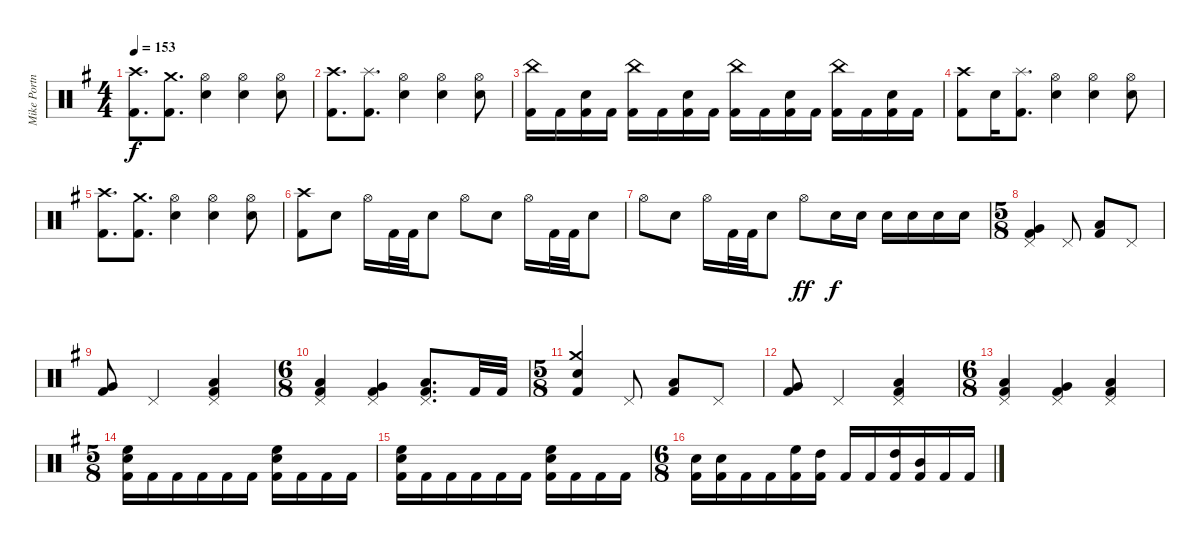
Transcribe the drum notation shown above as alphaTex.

\track ("Mike Portnoy - Drums" "Mike Portn") {instrument percussion}
\staff {score}
\articulation defaults
\ts (4 4)
\tempo 153
\clef neutral
\ks g
("Kick (hit) 2" "Crash high (hit)").8{d dy f} ("Kick (hit) 2" "Crash medium (hit)").8{d} ("Hi-Hat (open)" "Electric Snare (hit)").4 ("Hi-Hat (open)" "Electric Snare (hit)").4 ("Hi-Hat (open)" "Electric Snare (hit)").8 |
("Crash high (hit)" "Kick (hit) 2").8{d} ("Splash (hit)" "Kick (hit) 2").8{d} ("Hi-Hat (open)" "Electric Snare (hit)").4 ("Hi-Hat (open)" "Electric Snare (hit)").4 ("Hi-Hat (open)" "Electric Snare (hit)").8 |
("Kick (hit) 2" "China (hit)").16 "Kick (hit) 2".16 ("Electric Snare (hit)" "Kick (hit) 2").16 "Kick (hit) 2".16 ("Kick (hit) 2" "China (hit)").16 "Kick (hit) 2".16 ("Electric Snare (hit)" "Kick (hit) 2").16 "Kick (hit) 2".16 ("Kick (hit) 2" "China (hit)").16 "Kick (hit) 2".16 ("Electric Snare (hit)" "Kick (hit) 2").16 "Kick (hit) 2".16 ("Kick (hit) 2" "China (hit)").16 "Kick (hit) 2".16 ("Electric Snare (hit)" "Kick (hit) 2").16 "Kick (hit) 2".16 |
("Kick (hit) 2" "Crash high (hit)").8 "Electric Snare (hit)".16 ("Splash (hit)" "Kick (hit) 2").8{d} ("Hi-Hat (open)" "Electric Snare (hit)").4 ("Hi-Hat (open)" "Electric Snare (hit)").4 ("Hi-Hat (open)" "Electric Snare (hit)").8 |
("Kick (hit) 2" "Crash high (hit)").8{d} ("Kick (hit) 2" "Crash medium (hit)").8{d} ("Hi-Hat (open)" "Electric Snare (hit)").4 ("Hi-Hat (open)" "Electric Snare (hit)").4 ("Hi-Hat (open)" "Electric Snare (hit)").8 |
("Kick (hit) 2" "Crash high (hit)").8 "Electric Snare (hit)".8 "Hi-Hat (open)".16 "Kick (hit) 2".32 "Kick (hit) 2".32 "Electric Snare (hit)".8 "Hi-Hat (open)".8 "Electric Snare (hit)".8 "Hi-Hat (open)".16 "Kick (hit) 2".32 "Kick (hit) 2".32 "Electric Snare (hit)".8 |
"Hi-Hat (open)".8 "Electric Snare (hit)".8 "Hi-Hat (open)".16 "Kick (hit) 2".32 "Kick (hit) 2".32 "Electric Snare (hit)".8 "Hi-Hat (open)".8{dy ff} "Electric Snare (hit)".16{dy f} "Electric Snare (hit)".16 "Electric Snare (hit)".16 "Electric Snare (hit)".16 "Electric Snare (hit)".16 "Electric Snare (hit)".16 |
\ts (5 8)
("Kick (hit) 2" "Pedal Hi-Hat (hit)" "Very Low Tom (hit)").4 "Pedal Hi-Hat (hit)".8 ("Low Floor Tom (hit)" "Kick (hit) 2").8 "Pedal Hi-Hat (hit)".8 |
("Very Low Tom (hit)" "Kick (hit) 2").8 "Pedal Hi-Hat (hit)".4 ("Low Floor Tom (hit)" "Kick (hit) 2" "Pedal Hi-Hat (hit)").4 |
\ts (6 8)
("Kick (hit) 2" "Low Tom (hit)" "Pedal Hi-Hat (hit)").4 ("Very Low Tom (hit)" "Kick (hit) 2" "Pedal Hi-Hat (hit)").4 ("Kick (hit) 2" "Low Floor Tom (hit)" "Pedal Hi-Hat (hit)").8{d} "Kick (hit) 2".32 "Kick (hit) 2".32 |
\ts (5 8)
("Kick (hit) 2" "Electric Snare (hit)" "Crash medium (hit)").4 "Pedal Hi-Hat (hit)".8 ("Low Floor Tom (hit)" "Kick (hit) 2").8 "Pedal Hi-Hat (hit)".8 |
("Very Low Tom (hit)" "Kick (hit) 2").8 "Pedal Hi-Hat (hit)".4 ("Low Floor Tom (hit)" "Kick (hit) 2" "Pedal Hi-Hat (hit)").4 |
\ts (6 8)
("Kick (hit) 2" "Low Tom (hit)" "Pedal Hi-Hat (hit)").4 ("Very Low Tom (hit)" "Kick (hit) 2" "Pedal Hi-Hat (hit)").4 ("Pedal Hi-Hat (hit)" "Low Floor Tom (hit)" "Kick (hit) 2").4 |
\ts (5 8)
("Kick (hit) 2" "High Floor Tom (hit)" "Electric Snare (hit)").16 "Kick (hit) 2".16 "Kick (hit) 2".16 "Kick (hit) 2".16 "Kick (hit) 2".16 "Kick (hit) 2".16 ("Kick (hit) 2" "Electric Snare (hit)" "High Floor Tom (hit)").16 "Kick (hit) 2".16 "Kick (hit) 2".16 "Kick (hit) 2".16 |
("Kick (hit) 2" "Electric Snare (hit)" "High Floor Tom (hit)").16 "Kick (hit) 2".16 "Kick (hit) 2".16 "Kick (hit) 2".16 "Kick (hit) 2".16 "Kick (hit) 2".16 ("Kick (hit) 2" "High Floor Tom (hit)" "Electric Snare (hit)").16 "Kick (hit) 2".16 "Kick (hit) 2".16 "Kick (hit) 2".16 |
\ts (6 8)
("Kick (hit) 2" "Electric Snare (hit)").16 ("Kick (hit) 2" "Electric Snare (hit)").16 "Kick (hit) 2".16 "Kick (hit) 2".16 ("Kick (hit) 2" "High Floor Tom (hit)").16 ("Kick (hit) 2" "High Tom (hit)").16 "Kick (hit) 2".16 "Kick (hit) 2".16 ("Kick (hit) 2" "High Tom (hit)").16 ("Kick (hit) 2" "Mid Tom (hit)").16 "Kick (hit) 2".16 "Kick (hit) 2".16
